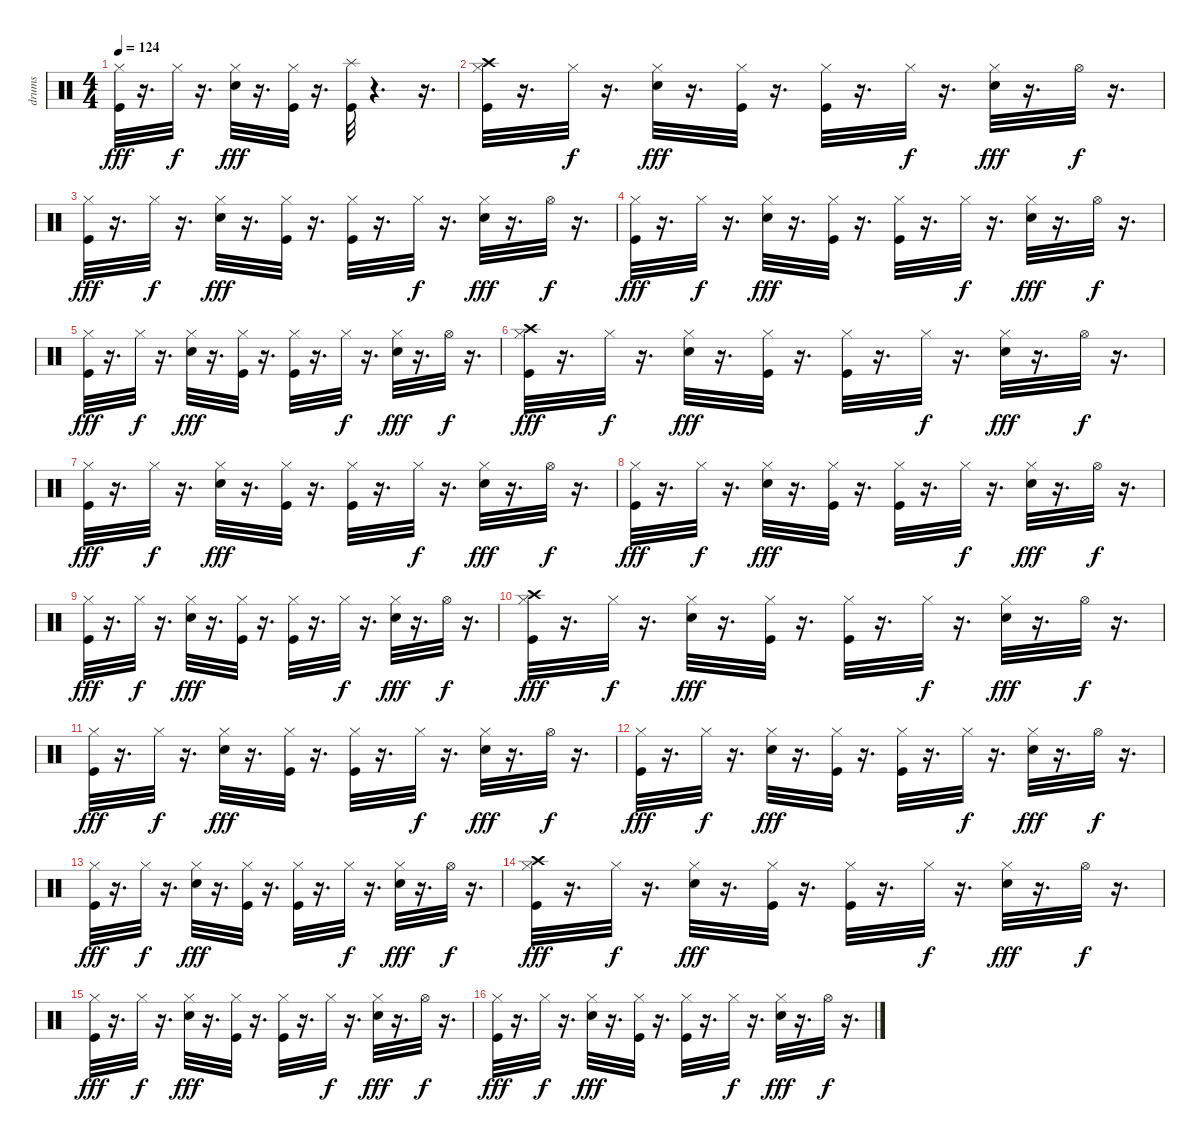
\track ("drums" "drums") {instrument percussion}
\staff {score}
\articulation defaults
\ts (4 4)
\tempo 124
\clef neutral
\ks c
("Kick (hit)" "Hi-Hat (closed)").32{dy fff} r.16{d} "Hi-Hat (closed)".32{dy f} r.16{d} ("Electric Snare (hit)" "Hi-Hat (closed)").32{dy fff} r.16{d} ("Kick (hit)" "Hi-Hat (closed)").32 r.16{d} ("Splash (hit)" "Kick (hit)").32 r.4{d} r.16{d} |
("Crash high (hit)" "Hi-Hat (closed)" "Kick (hit)").32 r.16{d} "Hi-Hat (closed)".32{dy f} r.16{d} ("Hi-Hat (closed)" "Electric Snare (hit)").32{dy fff} r.16{d} ("Hi-Hat (closed)" "Kick (hit)").32 r.16{d} ("Hi-Hat (closed)" "Kick (hit)").32 r.16{d} "Hi-Hat (closed)".32{dy f} r.16{d} ("Hi-Hat (closed)" "Electric Snare (hit)").32{dy fff} r.16{d} "Hi-Hat (open)".32{dy f} r.16{d} |
("Kick (hit)" "Hi-Hat (closed)").32{dy fff} r.16{d} "Hi-Hat (closed)".32{dy f} r.16{d} ("Electric Snare (hit)" "Hi-Hat (closed)").32{dy fff} r.16{d} ("Kick (hit)" "Hi-Hat (closed)").32 r.16{d} ("Kick (hit)" "Hi-Hat (closed)").32 r.16{d} "Hi-Hat (closed)".32{dy f} r.16{d} ("Electric Snare (hit)" "Hi-Hat (closed)").32{dy fff} r.16{d} "Hi-Hat (open)".32{dy f} r.16{d} |
("Hi-Hat (closed)" "Kick (hit)").32{dy fff} r.16{d} "Hi-Hat (closed)".32{dy f} r.16{d} ("Hi-Hat (closed)" "Electric Snare (hit)").32{dy fff} r.16{d} ("Hi-Hat (closed)" "Kick (hit)").32 r.16{d} ("Hi-Hat (closed)" "Kick (hit)").32 r.16{d} "Hi-Hat (closed)".32{dy f} r.16{d} ("Hi-Hat (closed)" "Electric Snare (hit)").32{dy fff} r.16{d} "Hi-Hat (open)".32{dy f} r.16{d} |
("Kick (hit)" "Hi-Hat (closed)").32{dy fff} r.16{d} "Hi-Hat (closed)".32{dy f} r.16{d} ("Electric Snare (hit)" "Hi-Hat (closed)").32{dy fff} r.16{d} ("Kick (hit)" "Hi-Hat (closed)").32 r.16{d} ("Kick (hit)" "Hi-Hat (closed)").32 r.16{d} "Hi-Hat (closed)".32{dy f} r.16{d} ("Electric Snare (hit)" "Hi-Hat (closed)").32{dy fff} r.16{d} "Hi-Hat (open)".32{dy f} r.16{d} |
("Crash high (hit)" "Hi-Hat (closed)" "Kick (hit)").32{dy fff} r.16{d} "Hi-Hat (closed)".32{dy f} r.16{d} ("Hi-Hat (closed)" "Electric Snare (hit)").32{dy fff} r.16{d} ("Hi-Hat (closed)" "Kick (hit)").32 r.16{d} ("Hi-Hat (closed)" "Kick (hit)").32 r.16{d} "Hi-Hat (closed)".32{dy f} r.16{d} ("Hi-Hat (closed)" "Electric Snare (hit)").32{dy fff} r.16{d} "Hi-Hat (open)".32{dy f} r.16{d} |
("Hi-Hat (closed)" "Kick (hit)").32{dy fff} r.16{d} "Hi-Hat (closed)".32{dy f} r.16{d} ("Hi-Hat (closed)" "Electric Snare (hit)").32{dy fff} r.16{d} ("Hi-Hat (closed)" "Kick (hit)").32 r.16{d} ("Hi-Hat (closed)" "Kick (hit)").32 r.16{d} "Hi-Hat (closed)".32{dy f} r.16{d} ("Hi-Hat (closed)" "Electric Snare (hit)").32{dy fff} r.16{d} "Hi-Hat (open)".32{dy f} r.16{d} |
("Kick (hit)" "Hi-Hat (closed)").32{dy fff} r.16{d} "Hi-Hat (closed)".32{dy f} r.16{d} ("Electric Snare (hit)" "Hi-Hat (closed)").32{dy fff} r.16{d} ("Kick (hit)" "Hi-Hat (closed)").32 r.16{d} ("Kick (hit)" "Hi-Hat (closed)").32 r.16{d} "Hi-Hat (closed)".32{dy f} r.16{d} ("Electric Snare (hit)" "Hi-Hat (closed)").32{dy fff} r.16{d} "Hi-Hat (open)".32{dy f} r.16{d} |
("Kick (hit)" "Hi-Hat (closed)").32{dy fff} r.16{d} "Hi-Hat (closed)".32{dy f} r.16{d} ("Electric Snare (hit)" "Hi-Hat (closed)").32{dy fff} r.16{d} ("Kick (hit)" "Hi-Hat (closed)").32 r.16{d} ("Kick (hit)" "Hi-Hat (closed)").32 r.16{d} "Hi-Hat (closed)".32{dy f} r.16{d} ("Electric Snare (hit)" "Hi-Hat (closed)").32{dy fff} r.16{d} "Hi-Hat (open)".32{dy f} r.16{d} |
("Crash high (hit)" "Hi-Hat (closed)" "Kick (hit)").32{dy fff} r.16{d} "Hi-Hat (closed)".32{dy f} r.16{d} ("Hi-Hat (closed)" "Electric Snare (hit)").32{dy fff} r.16{d} ("Hi-Hat (closed)" "Kick (hit)").32 r.16{d} ("Hi-Hat (closed)" "Kick (hit)").32 r.16{d} "Hi-Hat (closed)".32{dy f} r.16{d} ("Hi-Hat (closed)" "Electric Snare (hit)").32{dy fff} r.16{d} "Hi-Hat (open)".32{dy f} r.16{d} |
("Kick (hit)" "Hi-Hat (closed)").32{dy fff} r.16{d} "Hi-Hat (closed)".32{dy f} r.16{d} ("Electric Snare (hit)" "Hi-Hat (closed)").32{dy fff} r.16{d} ("Kick (hit)" "Hi-Hat (closed)").32 r.16{d} ("Kick (hit)" "Hi-Hat (closed)").32 r.16{d} "Hi-Hat (closed)".32{dy f} r.16{d} ("Electric Snare (hit)" "Hi-Hat (closed)").32{dy fff} r.16{d} "Hi-Hat (open)".32{dy f} r.16{d} |
("Hi-Hat (closed)" "Kick (hit)").32{dy fff} r.16{d} "Hi-Hat (closed)".32{dy f} r.16{d} ("Hi-Hat (closed)" "Electric Snare (hit)").32{dy fff} r.16{d} ("Hi-Hat (closed)" "Kick (hit)").32 r.16{d} ("Hi-Hat (closed)" "Kick (hit)").32 r.16{d} "Hi-Hat (closed)".32{dy f} r.16{d} ("Hi-Hat (closed)" "Electric Snare (hit)").32{dy fff} r.16{d} "Hi-Hat (open)".32{dy f} r.16{d} |
("Kick (hit)" "Hi-Hat (closed)").32{dy fff} r.16{d} "Hi-Hat (closed)".32{dy f} r.16{d} ("Electric Snare (hit)" "Hi-Hat (closed)").32{dy fff} r.16{d} ("Kick (hit)" "Hi-Hat (closed)").32 r.16{d} ("Kick (hit)" "Hi-Hat (closed)").32 r.16{d} "Hi-Hat (closed)".32{dy f} r.16{d} ("Electric Snare (hit)" "Hi-Hat (closed)").32{dy fff} r.16{d} "Hi-Hat (open)".32{dy f} r.16{d} |
("Crash high (hit)" "Hi-Hat (closed)" "Kick (hit)").32{dy fff} r.16{d} "Hi-Hat (closed)".32{dy f} r.16{d} ("Hi-Hat (closed)" "Electric Snare (hit)").32{dy fff} r.16{d} ("Hi-Hat (closed)" "Kick (hit)").32 r.16{d} ("Hi-Hat (closed)" "Kick (hit)").32 r.16{d} "Hi-Hat (closed)".32{dy f} r.16{d} ("Hi-Hat (closed)" "Electric Snare (hit)").32{dy fff} r.16{d} "Hi-Hat (open)".32{dy f} r.16{d} |
("Hi-Hat (closed)" "Kick (hit)").32{dy fff} r.16{d} "Hi-Hat (closed)".32{dy f} r.16{d} ("Hi-Hat (closed)" "Electric Snare (hit)").32{dy fff} r.16{d} ("Hi-Hat (closed)" "Kick (hit)").32 r.16{d} ("Hi-Hat (closed)" "Kick (hit)").32 r.16{d} "Hi-Hat (closed)".32{dy f} r.16{d} ("Hi-Hat (closed)" "Electric Snare (hit)").32{dy fff} r.16{d} "Hi-Hat (open)".32{dy f} r.16{d} |
("Kick (hit)" "Hi-Hat (closed)").32{dy fff} r.16{d} "Hi-Hat (closed)".32{dy f} r.16{d} ("Electric Snare (hit)" "Hi-Hat (closed)").32{dy fff} r.16{d} ("Kick (hit)" "Hi-Hat (closed)").32 r.16{d} ("Kick (hit)" "Hi-Hat (closed)").32 r.16{d} "Hi-Hat (closed)".32{dy f} r.16{d} ("Electric Snare (hit)" "Hi-Hat (closed)").32{dy fff} r.16{d} "Hi-Hat (open)".32{dy f} r.16{d}
